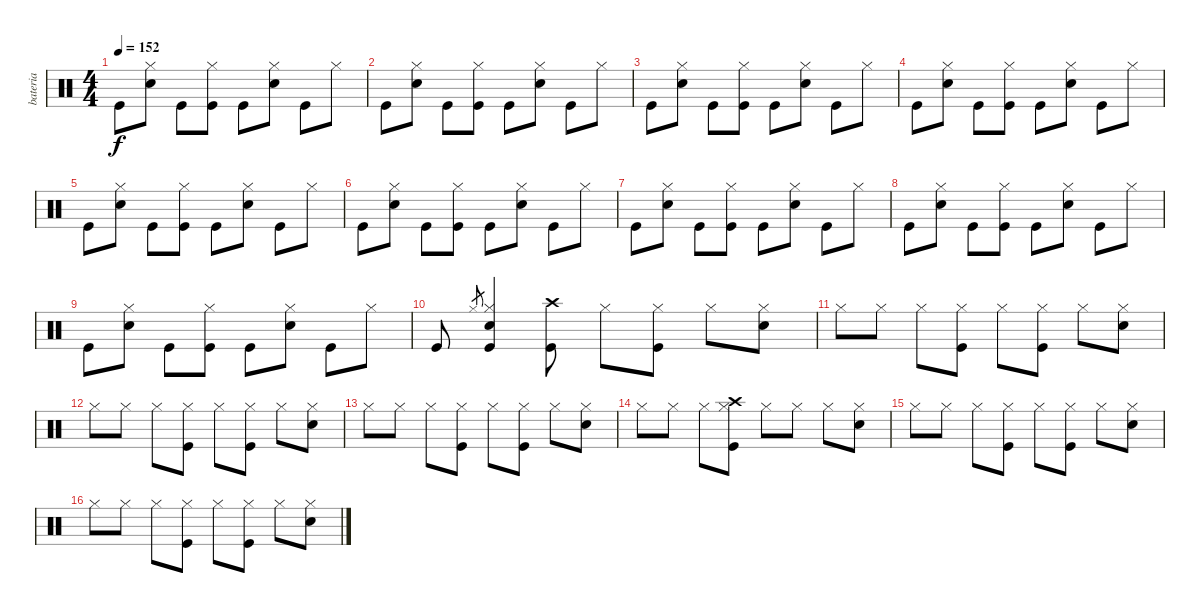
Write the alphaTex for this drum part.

\track ("bateria" "bateria") {instrument percussion}
\staff {score}
\articulation defaults
\ts (4 4)
\tempo 152
\clef neutral
\ks c "Kick (hit)".8{dy f}
("Hi-Hat (closed)" "Electric Snare (hit)").8 "Kick (hit)".8 ("Hi-Hat (closed)" "Kick (hit)").8 "Kick (hit)".8 ("Hi-Hat (closed)" "Electric Snare (hit)").8 "Kick (hit)".8 "Hi-Hat (closed)".8 |
"Kick (hit)".8 ("Hi-Hat (closed)" "Electric Snare (hit)").8 "Kick (hit)".8 ("Hi-Hat (closed)" "Kick (hit)").8 "Kick (hit)".8 ("Hi-Hat (closed)" "Electric Snare (hit)").8 "Kick (hit)".8 "Hi-Hat (closed)".8 |
"Kick (hit)".8 ("Hi-Hat (closed)" "Electric Snare (hit)").8 "Kick (hit)".8 ("Hi-Hat (closed)" "Kick (hit)").8 "Kick (hit)".8 ("Hi-Hat (closed)" "Electric Snare (hit)").8 "Kick (hit)".8 "Hi-Hat (closed)".8 |
"Kick (hit)".8 ("Hi-Hat (closed)" "Electric Snare (hit)").8 "Kick (hit)".8 ("Hi-Hat (closed)" "Kick (hit)").8 "Kick (hit)".8 ("Hi-Hat (closed)" "Electric Snare (hit)").8 "Kick (hit)".8 "Hi-Hat (closed)".8 |
"Kick (hit)".8 ("Hi-Hat (closed)" "Electric Snare (hit)").8 "Kick (hit)".8 ("Hi-Hat (closed)" "Kick (hit)").8 "Kick (hit)".8 ("Hi-Hat (closed)" "Electric Snare (hit)").8 "Kick (hit)".8 "Hi-Hat (closed)".8 |
"Kick (hit)".8 ("Hi-Hat (closed)" "Electric Snare (hit)").8 "Kick (hit)".8 ("Hi-Hat (closed)" "Kick (hit)").8 "Kick (hit)".8 ("Hi-Hat (closed)" "Electric Snare (hit)").8 "Kick (hit)".8 "Hi-Hat (closed)".8 |
"Kick (hit)".8 ("Hi-Hat (closed)" "Electric Snare (hit)").8 "Kick (hit)".8 ("Hi-Hat (closed)" "Kick (hit)").8 "Kick (hit)".8 ("Hi-Hat (closed)" "Electric Snare (hit)").8 "Kick (hit)".8 "Hi-Hat (closed)".8 |
"Kick (hit)".8 ("Hi-Hat (closed)" "Electric Snare (hit)").8 "Kick (hit)".8 ("Hi-Hat (closed)" "Kick (hit)").8 "Kick (hit)".8 ("Hi-Hat (closed)" "Electric Snare (hit)").8 "Kick (hit)".8 "Hi-Hat (closed)".8 |
"Kick (hit)".8 ("Hi-Hat (closed)" "Electric Snare (hit)").8 "Kick (hit)".8 ("Hi-Hat (closed)" "Kick (hit)").8 "Kick (hit)".8 ("Hi-Hat (closed)" "Electric Snare (hit)").8 "Kick (hit)".8 "Hi-Hat (closed)".8 |
"Kick (hit)".8 "Hi-Hat (closed)".8{gr} ("Hi-Hat (closed)" "Kick (hit)" "Electric Snare (hit)").4 ("Crash high (hit)" "Kick (hit)").8 "Hi-Hat (closed)".8 ("Hi-Hat (closed)" "Kick (hit)").8 "Hi-Hat (closed)".8 ("Hi-Hat (closed)" "Electric Snare (hit)").8 |
"Hi-Hat (closed)".8 "Hi-Hat (closed)".8 "Hi-Hat (closed)".8 ("Hi-Hat (closed)" "Kick (hit)").8 "Hi-Hat (closed)".8 ("Hi-Hat (closed)" "Kick (hit)").8 "Hi-Hat (closed)".8 ("Hi-Hat (closed)" "Electric Snare (hit)").8 |
"Hi-Hat (closed)".8 "Hi-Hat (closed)".8 "Hi-Hat (closed)".8 ("Hi-Hat (closed)" "Kick (hit)").8 "Hi-Hat (closed)".8 ("Hi-Hat (closed)" "Kick (hit)").8 "Hi-Hat (closed)".8 ("Hi-Hat (closed)" "Electric Snare (hit)").8 |
"Hi-Hat (closed)".8 "Hi-Hat (closed)".8 "Hi-Hat (closed)".8 ("Hi-Hat (closed)" "Kick (hit)").8 "Hi-Hat (closed)".8 ("Hi-Hat (closed)" "Kick (hit)").8 "Hi-Hat (closed)".8 ("Hi-Hat (closed)" "Electric Snare (hit)").8 |
"Hi-Hat (closed)".8 "Hi-Hat (closed)".8 "Hi-Hat (closed)".8 ("Hi-Hat (closed)" "Kick (hit)" "Crash high (hit)").8 "Hi-Hat (closed)".8 "Hi-Hat (closed)".8 "Hi-Hat (closed)".8 ("Hi-Hat (closed)" "Electric Snare (hit)").8 |
"Hi-Hat (closed)".8 "Hi-Hat (closed)".8 "Hi-Hat (closed)".8 ("Hi-Hat (closed)" "Kick (hit)").8 "Hi-Hat (closed)".8 ("Hi-Hat (closed)" "Kick (hit)").8 "Hi-Hat (closed)".8 ("Hi-Hat (closed)" "Electric Snare (hit)").8 |
"Hi-Hat (closed)".8 "Hi-Hat (closed)".8 "Hi-Hat (closed)".8 ("Hi-Hat (closed)" "Kick (hit)").8 "Hi-Hat (closed)".8 ("Hi-Hat (closed)" "Kick (hit)").8 "Hi-Hat (closed)".8 ("Hi-Hat (closed)" "Electric Snare (hit)").8
